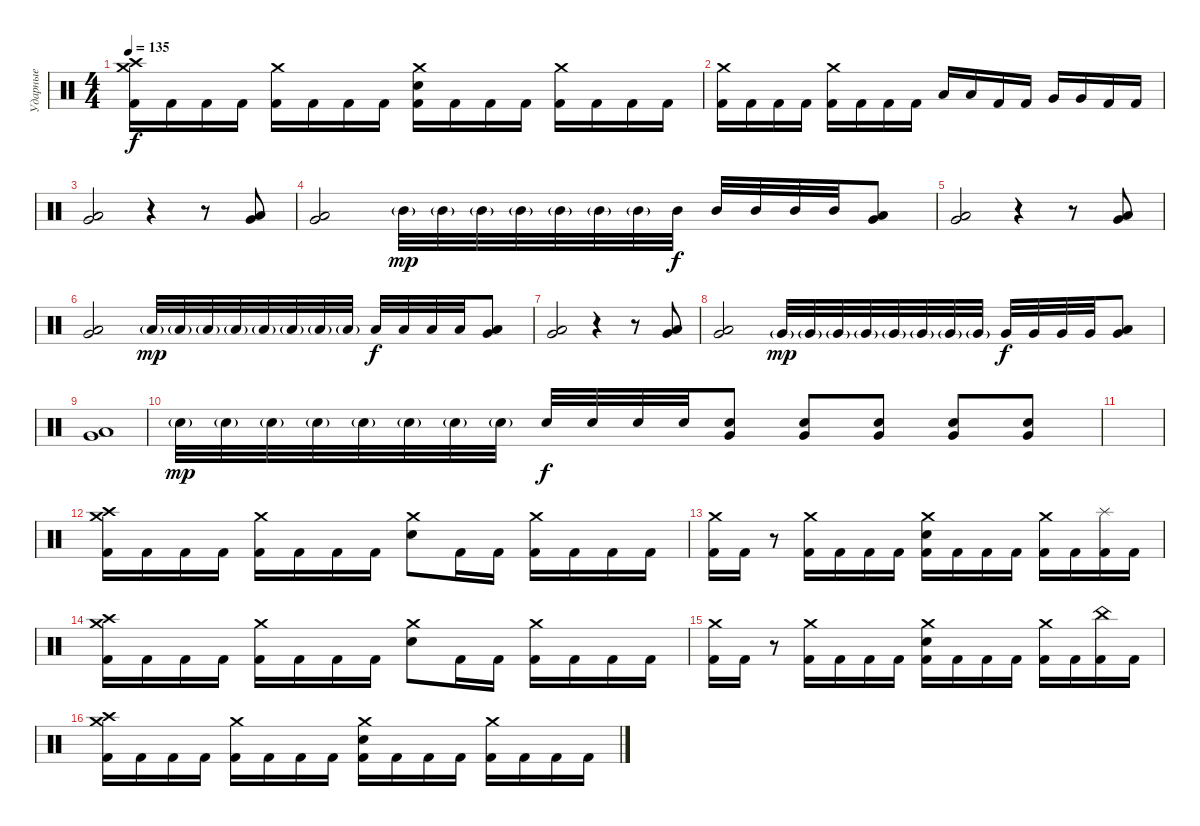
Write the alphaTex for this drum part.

\track ("Ударные" "Ударные") {instrument percussion}
\staff {score}
\articulation defaults
\ts (4 4)
\tempo 135
\clef neutral
\ks c
("Crash medium (hit)" "Crash high (hit)" "Kick (hit) 2").16{dy f} "Kick (hit) 2".16 "Kick (hit) 2".16 "Kick (hit) 2".16 ("Crash medium (hit)" "Kick (hit) 2").16 "Kick (hit) 2".16 "Kick (hit) 2".16 "Kick (hit) 2".16 ("Crash medium (hit)" "Electric Snare (hit)" "Kick (hit) 2").16 "Kick (hit) 2".16 "Kick (hit) 2".16 "Kick (hit) 2".16 ("Crash medium (hit)" "Kick (hit) 2").16 "Kick (hit) 2".16 "Kick (hit) 2".16 "Kick (hit) 2".16 |
("Crash medium (hit)" "Kick (hit) 2").16 "Kick (hit) 2".16 "Kick (hit) 2".16 "Kick (hit) 2".16 ("Crash medium (hit)" "Kick (hit) 2").16 "Kick (hit) 2".16 "Kick (hit) 2".16 "Kick (hit) 2".16 "Low Tom (hit)".16 "Low Tom (hit)".16 "Kick (hit) 2".16 "Kick (hit) 2".16 "Very Low Tom (hit)".16 "Very Low Tom (hit)".16 "Kick (hit) 2".16 "Kick (hit) 2".16 |
("Low Tom (hit)" "Very Low Tom (hit)").2 r.4 r.8 ("Low Tom (hit)" "Very Low Tom (hit)").8 |
("Low Tom (hit)" "Very Low Tom (hit)").2 "Mid Tom (hit)"{g}.32{dy mp} "Mid Tom (hit)"{g}.32 "Mid Tom (hit)"{g}.32 "Mid Tom (hit)"{g}.32 "Mid Tom (hit)"{g}.32 "Mid Tom (hit)"{g}.32 "Mid Tom (hit)"{g}.32 "Mid Tom (hit)".32{dy f} "Mid Tom (hit)".32 "Mid Tom (hit)".32 "Mid Tom (hit)".32 "Mid Tom (hit)".32 ("Low Tom (hit)" "Very Low Tom (hit)").8 |
("Low Tom (hit)" "Very Low Tom (hit)").2 r.4 r.8 ("Low Tom (hit)" "Very Low Tom (hit)").8 |
("Low Tom (hit)" "Very Low Tom (hit)").2 "Low Tom (hit)"{g}.32{dy mp} "Low Tom (hit)"{g}.32 "Low Tom (hit)"{g}.32 "Low Tom (hit)"{g}.32 "Low Tom (hit)"{g}.32 "Low Tom (hit)"{g}.32 "Low Tom (hit)"{g}.32 "Low Tom (hit)"{g}.32 "Low Tom (hit)".32{dy f} "Low Tom (hit)".32 "Low Tom (hit)".32 "Low Tom (hit)".32 ("Low Tom (hit)" "Very Low Tom (hit)").8 |
("Low Tom (hit)" "Very Low Tom (hit)").2 r.4 r.8 ("Low Tom (hit)" "Very Low Tom (hit)").8 |
("Low Tom (hit)" "Very Low Tom (hit)").2 "Very Low Tom (hit)"{g}.32{dy mp} "Very Low Tom (hit)"{g}.32 "Very Low Tom (hit)"{g}.32 "Very Low Tom (hit)"{g}.32 "Very Low Tom (hit)"{g}.32 "Very Low Tom (hit)"{g}.32 "Very Low Tom (hit)"{g}.32 "Very Low Tom (hit)"{g}.32 "Very Low Tom (hit)".32{dy f} "Very Low Tom (hit)".32 "Very Low Tom (hit)".32 "Very Low Tom (hit)".32 ("Low Tom (hit)" "Very Low Tom (hit)").8 |
("Low Tom (hit)" "Very Low Tom (hit)").1 |
"Electric Snare (hit)"{g}.32{dy mp} "Electric Snare (hit)"{g}.32 "Electric Snare (hit)"{g}.32 "Electric Snare (hit)"{g}.32 "Electric Snare (hit)"{g}.32 "Electric Snare (hit)"{g}.32 "Electric Snare (hit)"{g}.32 "Electric Snare (hit)"{g}.32 "Electric Snare (hit)".32{dy f} "Electric Snare (hit)".32 "Electric Snare (hit)".32 "Electric Snare (hit)".32 ("Electric Snare (hit)" "Very Low Tom (hit)").8 ("Electric Snare (hit)" "Very Low Tom (hit)").8 ("Electric Snare (hit)" "Very Low Tom (hit)").8 ("Electric Snare (hit)" "Very Low Tom (hit)").8 ("Electric Snare (hit)" "Very Low Tom (hit)").8 |
|
("Crash medium (hit)" "Crash high (hit)" "Kick (hit) 2").16 "Kick (hit) 2".16 "Kick (hit) 2".16 "Kick (hit) 2".16 ("Crash medium (hit)" "Kick (hit) 2").16 "Kick (hit) 2".16 "Kick (hit) 2".16 "Kick (hit) 2".16 ("Crash medium (hit)" "Electric Snare (hit)").8 "Kick (hit) 2".16 "Kick (hit) 2".16 ("Crash medium (hit)" "Kick (hit) 2").16 "Kick (hit) 2".16 "Kick (hit) 2".16 "Kick (hit) 2".16 |
("Crash medium (hit)" "Kick (hit) 2").16 "Kick (hit) 2".16 r.8 ("Crash medium (hit)" "Kick (hit) 2").16 "Kick (hit) 2".16 "Kick (hit) 2".16 "Kick (hit) 2".16 ("Crash medium (hit)" "Electric Snare (hit)" "Kick (hit) 2").16 "Kick (hit) 2".16 "Kick (hit) 2".16 "Kick (hit) 2".16 ("Crash medium (hit)" "Kick (hit) 2").16 "Kick (hit) 2".16 ("Splash (hit)" "Kick (hit) 2").16 "Kick (hit) 2".16 |
("Crash medium (hit)" "Crash high (hit)" "Kick (hit) 2").16 "Kick (hit) 2".16 "Kick (hit) 2".16 "Kick (hit) 2".16 ("Crash medium (hit)" "Kick (hit) 2").16 "Kick (hit) 2".16 "Kick (hit) 2".16 "Kick (hit) 2".16 ("Crash medium (hit)" "Electric Snare (hit)").8 "Kick (hit) 2".16 "Kick (hit) 2".16 ("Crash medium (hit)" "Kick (hit) 2").16 "Kick (hit) 2".16 "Kick (hit) 2".16 "Kick (hit) 2".16 |
("Crash medium (hit)" "Kick (hit) 2").16 "Kick (hit) 2".16 r.8 ("Crash medium (hit)" "Kick (hit) 2").16 "Kick (hit) 2".16 "Kick (hit) 2".16 "Kick (hit) 2".16 ("Crash medium (hit)" "Electric Snare (hit)" "Kick (hit) 2").16 "Kick (hit) 2".16 "Kick (hit) 2".16 "Kick (hit) 2".16 ("Crash medium (hit)" "Kick (hit) 2").16 "Kick (hit) 2".16 ("China (hit)" "Kick (hit) 2").16 "Kick (hit) 2".16 |
("Crash medium (hit)" "Crash high (hit)" "Kick (hit) 2").16 "Kick (hit) 2".16 "Kick (hit) 2".16 "Kick (hit) 2".16 ("Crash medium (hit)" "Kick (hit) 2").16 "Kick (hit) 2".16 "Kick (hit) 2".16 "Kick (hit) 2".16 ("Crash medium (hit)" "Electric Snare (hit)" "Kick (hit) 2").16 "Kick (hit) 2".16 "Kick (hit) 2".16 "Kick (hit) 2".16 ("Crash medium (hit)" "Kick (hit) 2").16 "Kick (hit) 2".16 "Kick (hit) 2".16 "Kick (hit) 2".16
